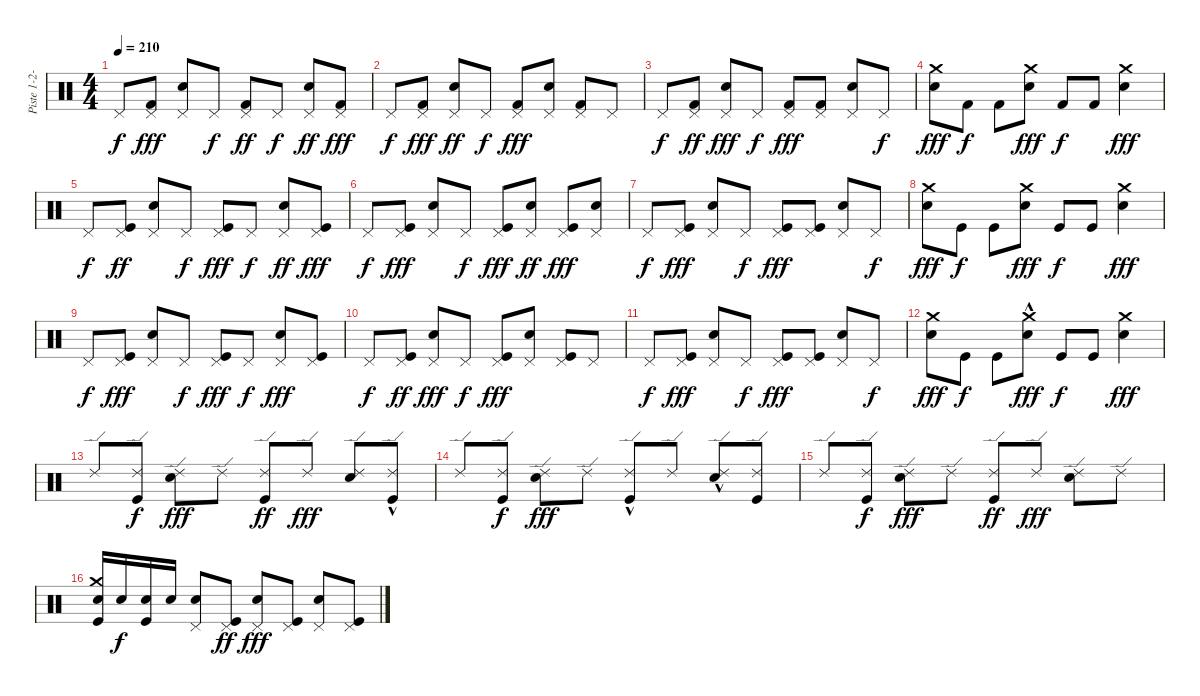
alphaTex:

\track ("Piste 1-2-3-4" "Piste 1-2-") {instrument percussion}
\staff {score}
\articulation defaults
\ts (4 4)
\tempo 210
\clef neutral
\ks c "Pedal Hi-Hat (hit)".8{dy f}
("Pedal Hi-Hat (hit)" "Kick (hit) 2").8{dy fff} ("Pedal Hi-Hat (hit)" "Snare (hit) 2").8 "Pedal Hi-Hat (hit)".8{dy f} ("Pedal Hi-Hat (hit)" "Kick (hit) 2").8{dy ff} "Pedal Hi-Hat (hit)".8{dy f} ("Pedal Hi-Hat (hit)" "Snare (hit) 2").8{dy ff} ("Pedal Hi-Hat (hit)" "Kick (hit) 2").8{dy fff} |
"Pedal Hi-Hat (hit)".8{dy f} ("Pedal Hi-Hat (hit)" "Kick (hit) 2").8{dy fff} ("Pedal Hi-Hat (hit)" "Snare (hit) 2").8{dy ff} "Pedal Hi-Hat (hit)".8{dy f} ("Pedal Hi-Hat (hit)" "Kick (hit) 2").8{dy fff} ("Pedal Hi-Hat (hit)" "Snare (hit) 2").8 ("Pedal Hi-Hat (hit)" "Kick (hit) 2").8 "Pedal Hi-Hat (hit)".8 |
"Pedal Hi-Hat (hit)".8{dy f} ("Pedal Hi-Hat (hit)" "Kick (hit) 2").8{dy ff} ("Pedal Hi-Hat (hit)" "Snare (hit) 2").8{dy fff} "Pedal Hi-Hat (hit)".8{dy f} ("Pedal Hi-Hat (hit)" "Kick (hit) 2").8{dy fff} ("Pedal Hi-Hat (hit)" "Kick (hit) 2").8 ("Pedal Hi-Hat (hit)" "Snare (hit) 2").8 "Pedal Hi-Hat (hit)".8{dy f} |
("Crash medium (hit)" "Snare (hit) 2").8{dy fff} "Kick (hit) 2".8{dy f} "Kick (hit) 2".8 ("Crash medium (hit)" "Snare (hit) 2").8{dy fff} "Kick (hit) 2".8{dy f} "Kick (hit) 2".8 ("Crash medium (hit)" "Snare (hit) 2").4{dy fff} |
"Pedal Hi-Hat (hit)".8{dy f} ("Pedal Hi-Hat (hit)" "Kick (hit)").8{dy ff} ("Pedal Hi-Hat (hit)" "Snare (hit) 2").8 "Pedal Hi-Hat (hit)".8{dy f} ("Pedal Hi-Hat (hit)" "Kick (hit)").8{dy fff} "Pedal Hi-Hat (hit)".8{dy f} ("Pedal Hi-Hat (hit)" "Snare (hit) 2").8{dy ff} ("Pedal Hi-Hat (hit)" "Kick (hit)").8{dy fff} |
"Pedal Hi-Hat (hit)".8{dy f} ("Pedal Hi-Hat (hit)" "Kick (hit)").8{dy fff} ("Pedal Hi-Hat (hit)" "Snare (hit) 2").8 "Pedal Hi-Hat (hit)".8{dy f} ("Pedal Hi-Hat (hit)" "Kick (hit)").8{dy fff} ("Pedal Hi-Hat (hit)" "Snare (hit) 2").8{dy ff} ("Pedal Hi-Hat (hit)" "Kick (hit)").8{dy fff} ("Pedal Hi-Hat (hit)" "Snare (hit) 2").8 |
"Pedal Hi-Hat (hit)".8{dy f} ("Pedal Hi-Hat (hit)" "Kick (hit)").8{dy fff} ("Pedal Hi-Hat (hit)" "Snare (hit) 2").8 "Pedal Hi-Hat (hit)".8{dy f} ("Pedal Hi-Hat (hit)" "Kick (hit)").8{dy fff} ("Pedal Hi-Hat (hit)" "Kick (hit)").8 ("Pedal Hi-Hat (hit)" "Snare (hit) 2").8 "Pedal Hi-Hat (hit)".8{dy f} |
("Crash medium (hit)" "Snare (hit) 2").8{dy fff} "Kick (hit)".8{dy f} "Kick (hit)".8 ("Crash medium (hit)" "Snare (hit) 2").8{dy fff} "Kick (hit)".8{dy f} "Kick (hit)".8 ("Crash medium (hit)" "Snare (hit) 2").4{dy fff} |
"Pedal Hi-Hat (hit)".8{dy f} ("Pedal Hi-Hat (hit)" "Kick (hit)").8{dy fff} ("Pedal Hi-Hat (hit)" "Snare (hit) 2").8 "Pedal Hi-Hat (hit)".8{dy f} ("Pedal Hi-Hat (hit)" "Kick (hit)").8{dy fff} "Pedal Hi-Hat (hit)".8{dy f} ("Pedal Hi-Hat (hit)" "Snare (hit) 2").8{dy fff} ("Pedal Hi-Hat (hit)" "Kick (hit)").8 |
"Pedal Hi-Hat (hit)".8{dy f} ("Pedal Hi-Hat (hit)" "Kick (hit)").8{dy ff} ("Pedal Hi-Hat (hit)" "Snare (hit) 2").8{dy fff} "Pedal Hi-Hat (hit)".8{dy f} ("Pedal Hi-Hat (hit)" "Kick (hit)").8{dy fff} ("Pedal Hi-Hat (hit)" "Snare (hit) 2").8 ("Pedal Hi-Hat (hit)" "Kick (hit)").8 "Pedal Hi-Hat (hit)".8 |
"Pedal Hi-Hat (hit)".8{dy f} ("Pedal Hi-Hat (hit)" "Kick (hit)").8{dy fff} ("Pedal Hi-Hat (hit)" "Snare (hit) 2").8 "Pedal Hi-Hat (hit)".8{dy f} ("Pedal Hi-Hat (hit)" "Kick (hit)").8{dy fff} ("Pedal Hi-Hat (hit)" "Kick (hit)").8 ("Pedal Hi-Hat (hit)" "Snare (hit) 2").8 "Pedal Hi-Hat (hit)".8{dy f} |
("Crash medium (hit)" "Snare (hit) 2").8{dy fff} "Kick (hit)".8{dy f} "Kick (hit)".8 ("Crash medium (hit)"{hac} "Snare (hit) 2").8{dy fff} "Kick (hit)".8{dy f} "Kick (hit)".8 ("Crash medium (hit)" "Snare (hit) 2").4{dy fff} |
"Ride (edge) 2".8 ("Ride (edge) 2" "Kick (hit)").8{dy f} ("Ride (edge) 2" "Snare (hit) 2").8{dy fff} "Ride (edge) 2".8 ("Ride (edge) 2" "Kick (hit)").8{dy ff} "Ride (edge) 2".8{dy fff} ("Ride (edge) 2" "Snare (hit) 2").8 ("Ride (edge) 2"{hac} "Kick (hit)").8 |
"Ride (edge) 2".8 ("Ride (edge) 2" "Kick (hit)").8{dy f} ("Ride (edge) 2" "Snare (hit) 2").8{dy fff} "Ride (edge) 2".8 ("Ride (edge) 2"{hac} "Kick (hit)").8 "Ride (edge) 2".8 ("Ride (edge) 2"{hac} "Snare (hit) 2").8 ("Ride (edge) 2" "Kick (hit)").8 |
"Ride (edge) 2".8 ("Ride (edge) 2" "Kick (hit)").8{dy f} ("Ride (edge) 2" "Snare (hit) 2").8{dy fff} "Ride (edge) 2".8 ("Ride (edge) 2" "Kick (hit)").8{dy ff} "Ride (edge) 2".8{dy fff} ("Ride (edge) 2" "Snare (hit) 2").8 "Ride (edge) 2".8 |
("Crash medium (hit)" "Snare (hit) 2" "Kick (hit)").16 "Snare (hit) 2".16{dy f} ("Snare (hit) 2" "Kick (hit)").16 "Snare (hit) 2".16 ("Pedal Hi-Hat (hit)" "Snare (hit) 2").8 ("Pedal Hi-Hat (hit)" "Kick (hit)").8{dy ff} ("Pedal Hi-Hat (hit)" "Snare (hit) 2").8{dy fff} ("Pedal Hi-Hat (hit)" "Kick (hit)").8 ("Pedal Hi-Hat (hit)" "Snare (hit) 2").8 ("Pedal Hi-Hat (hit)" "Kick (hit)").8
